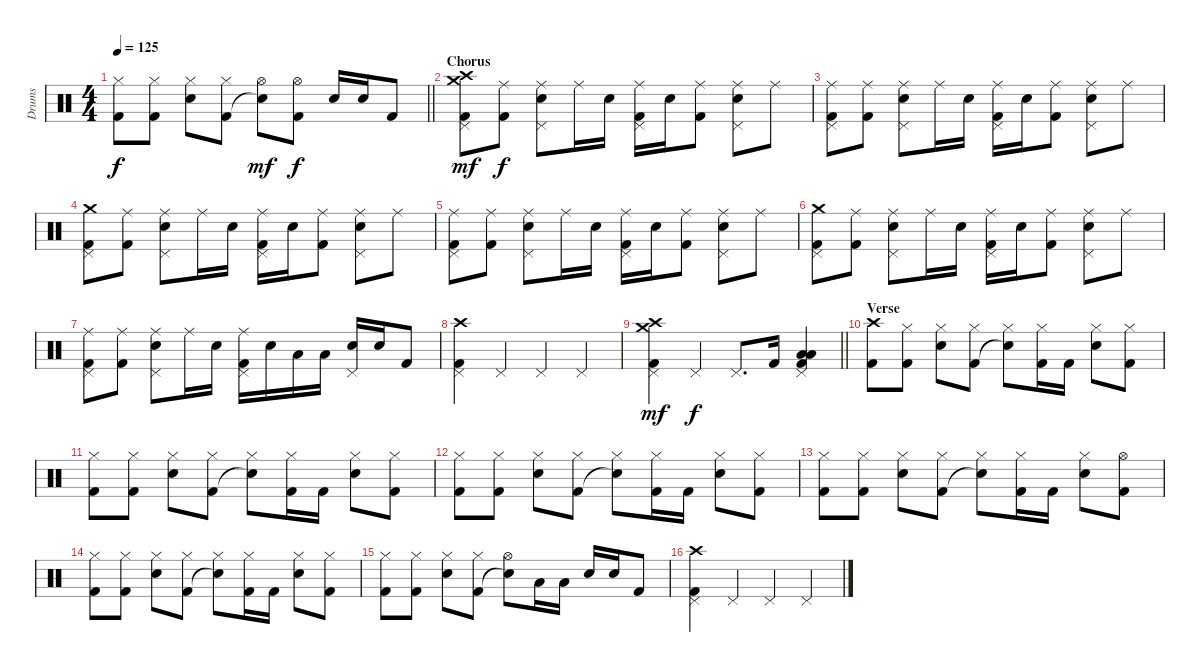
\track ("Drums" "Drums") {instrument percussion}
\staff {score}
\articulation defaults
\ts (4 4)
\tempo 125
\clef neutral
\barLineRight lightlight
\ks c
("Hi-Hat (closed)" "Kick (hit) 2").8{dy f} ("Hi-Hat (closed)" "Kick (hit) 2").8 ("Hi-Hat (closed)" "Electric Snare (hit)").8 ("Hi-Hat (closed)" "Kick (hit) 2").8 ("Hi-Hat (open)" "Snare (hit)"{t}).8{dy mf} ("Hi-Hat (open)" "Kick (hit) 2").8{dy f} "Electric Snare (hit)".16 "Electric Snare (hit)".16 "Kick (hit) 2".8 |
\section ("" "Chorus")
("Pedal Hi-Hat (hit)" "Crash high (hit)" "Crash medium (hit)" "Kick (hit) 2").8{dy mf} ("Ride (middle)" "Kick (hit) 2").8{dy f} ("Pedal Hi-Hat (hit)" "Ride (middle)" "Electric Snare (hit)").8 "Ride (middle)".16 "Electric Snare (hit)".16 ("Pedal Hi-Hat (hit)" "Ride (middle)" "Kick (hit) 2").16 "Electric Snare (hit)".16 ("Ride (middle)" "Kick (hit) 2").8 ("Pedal Hi-Hat (hit)" "Ride (middle)" "Electric Snare (hit)").8 "Ride (middle)".8 |
("Pedal Hi-Hat (hit)" "Ride (middle)" "Kick (hit) 2").8 ("Ride (middle)" "Kick (hit) 2").8 ("Pedal Hi-Hat (hit)" "Ride (middle)" "Electric Snare (hit)").8 "Ride (middle)".16 "Electric Snare (hit)".16 ("Pedal Hi-Hat (hit)" "Ride (middle)" "Kick (hit) 2").16 "Electric Snare (hit)".16 ("Ride (middle)" "Kick (hit) 2").8 ("Pedal Hi-Hat (hit)" "Ride (middle)" "Electric Snare (hit)").8 "Ride (middle)".8 |
("Pedal Hi-Hat (hit)" "Crash medium (hit)" "Kick (hit) 2").8 ("Ride (middle)" "Kick (hit) 2").8 ("Pedal Hi-Hat (hit)" "Ride (middle)" "Electric Snare (hit)").8 "Ride (middle)".16 "Electric Snare (hit)".16 ("Pedal Hi-Hat (hit)" "Ride (middle)" "Kick (hit) 2").16 "Electric Snare (hit)".16 ("Ride (middle)" "Kick (hit) 2").8 ("Pedal Hi-Hat (hit)" "Ride (middle)" "Electric Snare (hit)").8 "Ride (middle)".8 |
("Pedal Hi-Hat (hit)" "Ride (middle)" "Kick (hit) 2").8 ("Ride (middle)" "Kick (hit) 2").8 ("Pedal Hi-Hat (hit)" "Ride (middle)" "Electric Snare (hit)").8 "Ride (middle)".16 "Electric Snare (hit)".16 ("Pedal Hi-Hat (hit)" "Ride (middle)" "Kick (hit) 2").16 "Electric Snare (hit)".16 ("Ride (middle)" "Kick (hit) 2").8 ("Pedal Hi-Hat (hit)" "Ride (middle)" "Electric Snare (hit)").8 "Ride (middle)".8 |
("Pedal Hi-Hat (hit)" "Crash medium (hit)" "Kick (hit) 2").8 ("Ride (middle)" "Kick (hit) 2").8 ("Pedal Hi-Hat (hit)" "Ride (middle)" "Electric Snare (hit)").8 "Ride (middle)".16 "Electric Snare (hit)".16 ("Pedal Hi-Hat (hit)" "Ride (middle)" "Kick (hit) 2").16 "Electric Snare (hit)".16 ("Ride (middle)" "Kick (hit) 2").8 ("Pedal Hi-Hat (hit)" "Ride (middle)" "Electric Snare (hit)").8 "Ride (middle)".8 |
("Pedal Hi-Hat (hit)" "Ride (middle)" "Kick (hit) 2").8 ("Ride (middle)" "Kick (hit) 2").8 ("Pedal Hi-Hat (hit)" "Ride (middle)" "Electric Snare (hit)").8 "Ride (middle)".16 "Electric Snare (hit)".16 ("Pedal Hi-Hat (hit)" "Ride (middle)" "Kick (hit) 2").16 "Electric Snare (hit)".16 "Low Tom (hit)".16 "Low Floor Tom (hit)".16 ("Pedal Hi-Hat (hit)" "Electric Snare (hit)").16 "Electric Snare (hit)".16 "Kick (hit) 2".8 |
("Pedal Hi-Hat (hit)" "Crash high (hit)" "Kick (hit) 2").4 "Pedal Hi-Hat (hit)".4 "Pedal Hi-Hat (hit)".4 "Pedal Hi-Hat (hit)".4 |
\barLineRight lightlight
("Pedal Hi-Hat (hit)" "Crash high (hit)" "Crash medium (hit)" "Kick (hit) 2").4{dy mf} "Pedal Hi-Hat (hit)".4{dy f} "Pedal Hi-Hat (hit)".8{d} "Kick (hit) 2".16 ("Pedal Hi-Hat (hit)" "Low Tom (hit)" "Low Floor Tom (hit)" "Kick (hit) 2").4 |
\section ("" "Verse")
("Crash high (hit)" "Kick (hit) 2").8 ("Hi-Hat (closed)" "Kick (hit) 2").8 ("Hi-Hat (closed)" "Electric Snare (hit)").8 ("Hi-Hat (closed)" "Kick (hit) 2").8 ("Hi-Hat (closed)" "Snare (hit)"{t}).8 ("Hi-Hat (closed)" "Kick (hit) 2").16 "Kick (hit) 2".16 ("Hi-Hat (closed)" "Electric Snare (hit)").8 ("Hi-Hat (closed)" "Kick (hit) 2").8 |
("Hi-Hat (closed)" "Kick (hit) 2").8 ("Hi-Hat (closed)" "Kick (hit) 2").8 ("Hi-Hat (closed)" "Electric Snare (hit)").8 ("Hi-Hat (closed)" "Kick (hit) 2").8 ("Hi-Hat (closed)" "Snare (hit)"{t}).8 ("Hi-Hat (closed)" "Kick (hit) 2").16 "Kick (hit) 2".16 ("Hi-Hat (closed)" "Electric Snare (hit)").8 ("Hi-Hat (closed)" "Kick (hit) 2").8 |
("Hi-Hat (closed)" "Kick (hit) 2").8 ("Hi-Hat (closed)" "Kick (hit) 2").8 ("Hi-Hat (closed)" "Electric Snare (hit)").8 ("Hi-Hat (closed)" "Kick (hit) 2").8 ("Hi-Hat (closed)" "Snare (hit)"{t}).8 ("Hi-Hat (closed)" "Kick (hit) 2").16 "Kick (hit) 2".16 ("Hi-Hat (closed)" "Electric Snare (hit)").8 ("Hi-Hat (closed)" "Kick (hit) 2").8 |
("Hi-Hat (closed)" "Kick (hit) 2").8 ("Hi-Hat (closed)" "Kick (hit) 2").8 ("Hi-Hat (closed)" "Electric Snare (hit)").8 ("Hi-Hat (closed)" "Kick (hit) 2").8 ("Hi-Hat (closed)" "Snare (hit)"{t}).8 ("Hi-Hat (closed)" "Kick (hit) 2").16 "Kick (hit) 2".16 ("Hi-Hat (closed)" "Electric Snare (hit)").8 ("Hi-Hat (open)" "Kick (hit) 2").8 |
("Hi-Hat (closed)" "Kick (hit) 2").8 ("Hi-Hat (closed)" "Kick (hit) 2").8 ("Hi-Hat (closed)" "Electric Snare (hit)").8 ("Hi-Hat (closed)" "Kick (hit) 2").8 ("Hi-Hat (closed)" "Snare (hit)"{t}).8 ("Hi-Hat (closed)" "Kick (hit) 2").16 "Kick (hit) 2".16 ("Hi-Hat (closed)" "Electric Snare (hit)").8 ("Hi-Hat (closed)" "Kick (hit) 2").8 |
("Hi-Hat (closed)" "Kick (hit) 2").8 ("Hi-Hat (closed)" "Kick (hit) 2").8 ("Hi-Hat (closed)" "Electric Snare (hit)").8 ("Hi-Hat (closed)" "Kick (hit) 2").8 ("Hi-Hat (open)" "Snare (hit)"{t}).8 "Low Tom (hit)".16 "Low Floor Tom (hit)".16 "Electric Snare (hit)".16 "Electric Snare (hit)".16 "Kick (hit) 2".8 |
("Pedal Hi-Hat (hit)" "Crash high (hit)" "Kick (hit) 2").4 "Pedal Hi-Hat (hit)".4 "Pedal Hi-Hat (hit)".4 "Pedal Hi-Hat (hit)".4
